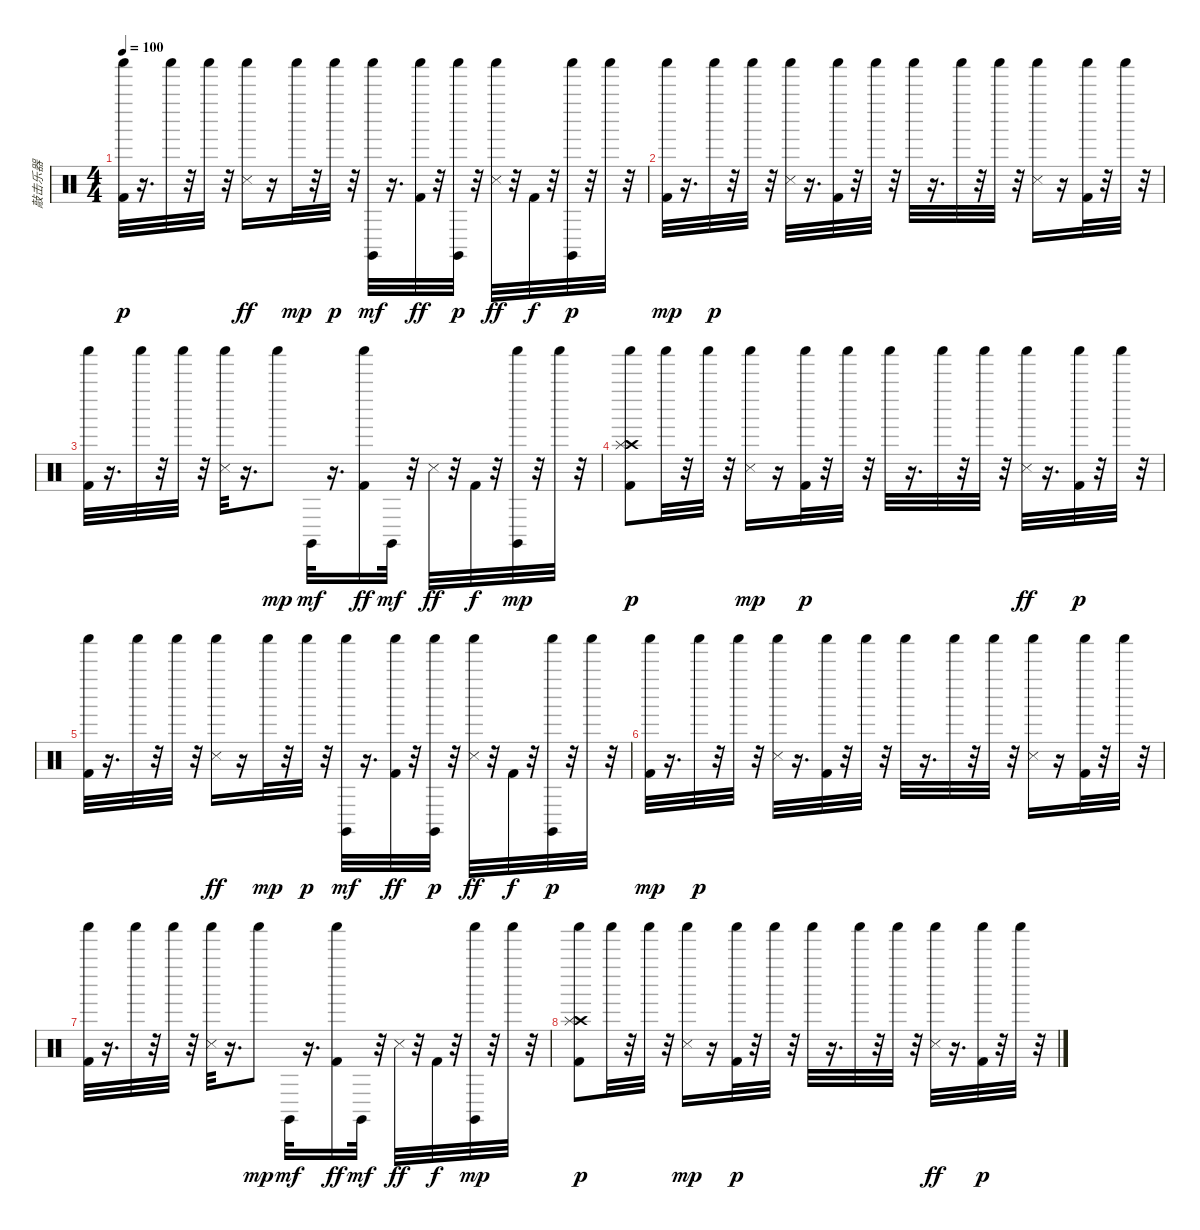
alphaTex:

\track ("敲击乐器" "敲击乐器") {instrument percussion}
\staff {score}
\articulation defaults
\ts (4 4)
\tempo 100
\clef neutral
\ks c
("Shaker (hit)" "Kick (hit) 2").32{dy p} r.16{d} "Shaker (hit)".32 r.32 "Shaker (hit)".32 r.32 ("Shaker (hit)" "Snare (side stick) 3").16{dy ff} r.16 "Shaker (hit)".32{dy mp} r.32 "Shaker (hit)".32{dy p} r.32 ("Shaker (hit)" "Claves (hit)").32{dy mf} r.16{d} ("Shaker (hit)" "Kick (hit) 2").32{dy ff} r.32 ("Claves (hit)" "Shaker (hit)").32{dy p} r.32 ("Shaker (hit)" "Snare (side stick) 3").32{dy ff} r.32 "Kick (hit) 2".32{dy f} r.32 ("Claves (hit)" "Shaker (hit)").32{dy p} r.32 "Shaker (hit)".32 r.32 |
("Kick (hit) 2" "Shaker (hit)").32{dy mp} r.16{d} "Shaker (hit)".32{dy p} r.32 "Shaker (hit)".32 r.32 ("Snare (side stick) 3" "Shaker (hit)").32 r.16{d} ("Kick (hit) 2" "Shaker (hit)").32 r.32 "Shaker (hit)".32 r.32 "Shaker (hit)".32 r.16{d} "Shaker (hit)".32 r.32 "Shaker (hit)".32 r.32 ("Snare (side stick) 3" "Shaker (hit)").16 r.16 ("Kick (hit) 2" "Shaker (hit)").32 r.32 "Shaker (hit)".32 r.32 |
("Shaker (hit)" "Kick (hit) 2").32 r.16{d} "Shaker (hit)".32 r.32 "Shaker (hit)".32 r.32 ("Snare (side stick) 3" "Shaker (hit)").32 r.16{d} "Shaker (hit)".8{dy mp} "Claves (hit)".32{dy mf} r.16{d} ("Shaker (hit)" "Kick (hit) 2").16{dy ff} "Claves (hit)".32{dy mf} r.32 "Snare (side stick) 3".32{dy ff} r.32 "Kick (hit) 2".32{dy f} r.32 ("Claves (hit)" "Shaker (hit)").32{dy mp} r.32 "Shaker (hit)".32 r.32 |
("Crash high (hit)" "Splash (hit)" "Shaker (hit)" "Kick (hit) 2").8{dy p} "Shaker (hit)".32 r.32 "Shaker (hit)".32 r.32 ("Shaker (hit)" "Snare (side stick) 3").16{dy mp} r.16 ("Kick (hit) 2" "Shaker (hit)").32{dy p} r.32 "Shaker (hit)".32 r.32 "Shaker (hit)".32 r.16{d} "Shaker (hit)".32 r.32 "Shaker (hit)".32 r.32 ("Shaker (hit)" "Snare (side stick) 3").32{dy ff} r.16{d} ("Kick (hit) 2" "Shaker (hit)").32{dy p} r.32 "Shaker (hit)".32 r.32 |
("Shaker (hit)" "Kick (hit) 2").32 r.16{d} "Shaker (hit)".32 r.32 "Shaker (hit)".32 r.32 ("Shaker (hit)" "Snare (side stick) 3").16{dy ff} r.16 "Shaker (hit)".32{dy mp} r.32 "Shaker (hit)".32{dy p} r.32 ("Shaker (hit)" "Claves (hit)").32{dy mf} r.16{d} ("Shaker (hit)" "Kick (hit) 2").32{dy ff} r.32 ("Claves (hit)" "Shaker (hit)").32{dy p} r.32 ("Shaker (hit)" "Snare (side stick) 3").32{dy ff} r.32 "Kick (hit) 2".32{dy f} r.32 ("Claves (hit)" "Shaker (hit)").32{dy p} r.32 "Shaker (hit)".32 r.32 |
("Kick (hit) 2" "Shaker (hit)").32{dy mp} r.16{d} "Shaker (hit)".32{dy p} r.32 "Shaker (hit)".32 r.32 ("Snare (side stick) 3" "Shaker (hit)").32 r.16{d} ("Kick (hit) 2" "Shaker (hit)").32 r.32 "Shaker (hit)".32 r.32 "Shaker (hit)".32 r.16{d} "Shaker (hit)".32 r.32 "Shaker (hit)".32 r.32 ("Snare (side stick) 3" "Shaker (hit)").16 r.16 ("Kick (hit) 2" "Shaker (hit)").32 r.32 "Shaker (hit)".32 r.32 |
("Shaker (hit)" "Kick (hit) 2").32 r.16{d} "Shaker (hit)".32 r.32 "Shaker (hit)".32 r.32 ("Snare (side stick) 3" "Shaker (hit)").32 r.16{d} "Shaker (hit)".8{dy mp} "Claves (hit)".32{dy mf} r.16{d} ("Shaker (hit)" "Kick (hit) 2").16{dy ff} "Claves (hit)".32{dy mf} r.32 "Snare (side stick) 3".32{dy ff} r.32 "Kick (hit) 2".32{dy f} r.32 ("Claves (hit)" "Shaker (hit)").32{dy mp} r.32 "Shaker (hit)".32 r.32 |
("Crash high (hit)" "Splash (hit)" "Shaker (hit)" "Kick (hit) 2").8{dy p} "Shaker (hit)".32 r.32 "Shaker (hit)".32 r.32 ("Shaker (hit)" "Snare (side stick) 3").16{dy mp} r.16 ("Kick (hit) 2" "Shaker (hit)").32{dy p} r.32 "Shaker (hit)".32 r.32 "Shaker (hit)".32 r.16{d} "Shaker (hit)".32 r.32 "Shaker (hit)".32 r.32 ("Shaker (hit)" "Snare (side stick) 3").32{dy ff} r.16{d} ("Kick (hit) 2" "Shaker (hit)").32{dy p} r.32 "Shaker (hit)".32 r.32
